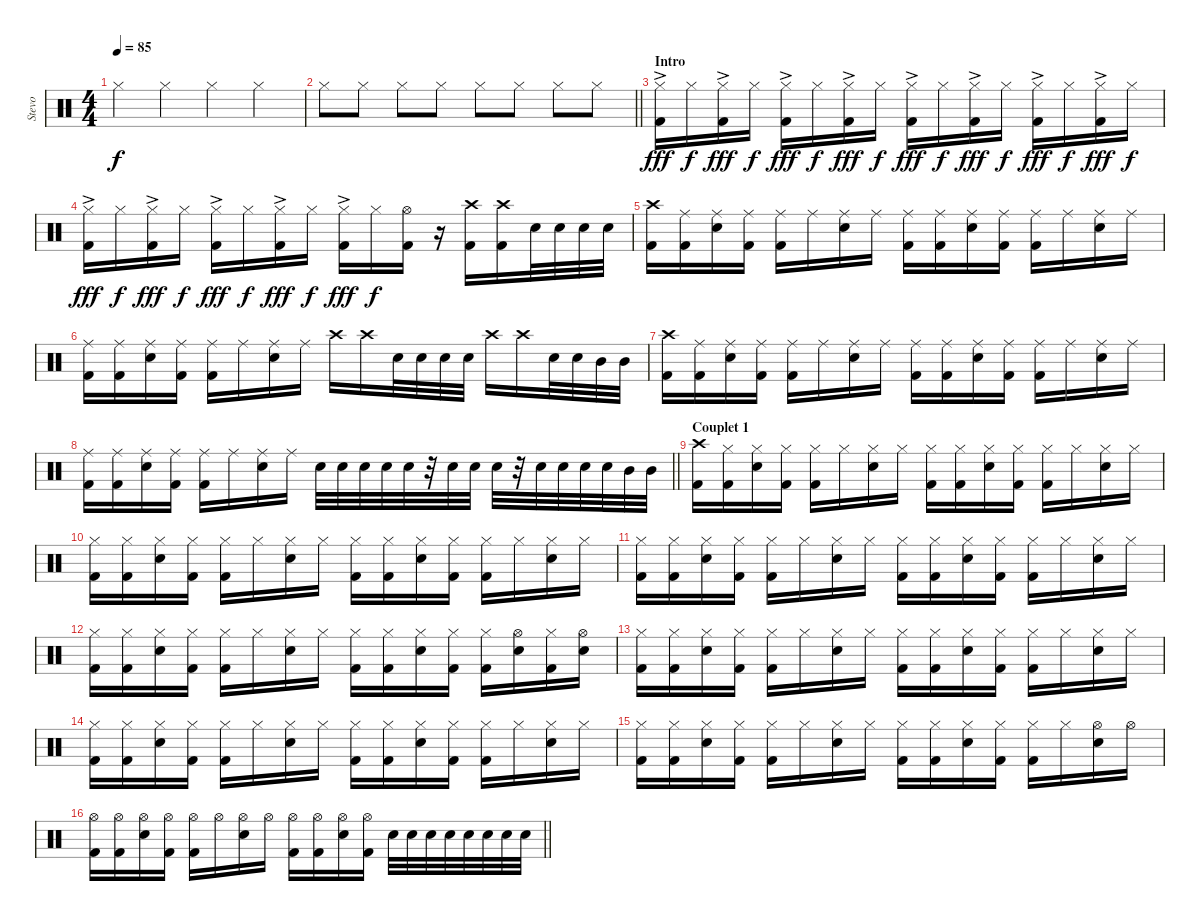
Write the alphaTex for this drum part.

\track ("Stevo" "Stevo") {instrument percussion}
\staff {score}
\articulation defaults
\ts (4 4)
\tempo 85
\clef neutral
\ks c "Hi-Hat (closed)".4{dy f} "Hi-Hat (closed)".4 "Hi-Hat (closed)".4 "Hi-Hat (closed)".4
|
\barLineRight lightlight "Hi-Hat (closed)".8 "Hi-Hat (closed)".8 "Hi-Hat (closed)".8 "Hi-Hat (closed)".8 "Hi-Hat (closed)".8 "Hi-Hat (closed)".8 "Hi-Hat (closed)".8 "Hi-Hat (closed)".8
|
\section ("" "Intro")
("Hi-Hat (closed)"{ac} "Kick (hit) 2").16{dy fff} "Hi-Hat (closed)".16{dy f} ("Hi-Hat (closed)"{ac} "Kick (hit) 2").16{dy fff} "Hi-Hat (closed)".16{dy f} ("Hi-Hat (closed)"{ac} "Kick (hit) 2").16{dy fff} "Hi-Hat (closed)".16{dy f} ("Hi-Hat (closed)"{ac} "Kick (hit) 2").16{dy fff} "Hi-Hat (closed)".16{dy f} ("Hi-Hat (closed)"{ac} "Kick (hit) 2").16{dy fff} "Hi-Hat (closed)".16{dy f} ("Hi-Hat (closed)"{ac} "Kick (hit) 2").16{dy fff} "Hi-Hat (closed)".16{dy f} ("Hi-Hat (closed)"{ac} "Kick (hit) 2").16{dy fff} "Hi-Hat (closed)".16{dy f} ("Hi-Hat (closed)"{ac} "Kick (hit) 2").16{dy fff} "Hi-Hat (closed)".16{dy f} |
("Hi-Hat (closed)"{ac} "Kick (hit) 2").16{dy fff} "Hi-Hat (closed)".16{dy f} ("Hi-Hat (closed)"{ac} "Kick (hit) 2").16{dy fff} "Hi-Hat (closed)".16{dy f} ("Hi-Hat (closed)"{ac} "Kick (hit) 2").16{dy fff} "Hi-Hat (closed)".16{dy f} ("Hi-Hat (closed)"{ac} "Kick (hit) 2").16{dy fff} "Hi-Hat (closed)".16{dy f} ("Hi-Hat (closed)"{ac} "Kick (hit) 2").16{dy fff} "Hi-Hat (closed)".16{dy f} ("Hi-Hat (open)" "Kick (hit) 2").16 r.16 ("Crash high (hit)" "Kick (hit) 2").16 ("Crash high (hit)" "Kick (hit) 2").16 "Electric Snare (hit)".32 "Electric Snare (hit)".32 "Electric Snare (hit)".32 "Electric Snare (hit)".32 |
("Crash high (hit)" "Kick (hit) 2").16 ("Ride (middle)" "Kick (hit) 2").16 ("Ride (middle)" "Electric Snare (hit)").16 ("Ride (middle)" "Kick (hit) 2").16 ("Ride (middle)" "Kick (hit) 2").16 "Ride (middle)".16 ("Ride (middle)" "Electric Snare (hit)").16 "Ride (middle)".16 ("Ride (middle)" "Kick (hit) 2").16 ("Ride (middle)" "Kick (hit) 2").16 ("Ride (middle)" "Electric Snare (hit)").16 ("Ride (middle)" "Kick (hit) 2").16 ("Ride (middle)" "Kick (hit) 2").16 "Ride (middle)".16 ("Ride (middle)" "Electric Snare (hit)").16 "Ride (middle)".16 |
("Ride (middle)" "Kick (hit) 2").16 ("Ride (middle)" "Kick (hit) 2").16 ("Ride (middle)" "Electric Snare (hit)").16 ("Ride (middle)" "Kick (hit) 2").16 ("Ride (middle)" "Kick (hit) 2").16 "Ride (middle)".16 ("Ride (middle)" "Electric Snare (hit)").16 "Ride (middle)".16 "Crash high (hit)".16 "Crash high (hit)".16 "Electric Snare (hit)".32 "Electric Snare (hit)".32 "Electric Snare (hit)".32 "Electric Snare (hit)".32 "Crash high (hit)".16 "Crash high (hit)".16 "Electric Snare (hit)".32 "Electric Snare (hit)".32 "Mid Tom (hit)".32 "Mid Tom (hit)".32 |
("Crash high (hit)" "Kick (hit) 2").16 ("Ride (middle)" "Kick (hit) 2").16 ("Ride (middle)" "Electric Snare (hit)").16 ("Ride (middle)" "Kick (hit) 2").16 ("Ride (middle)" "Kick (hit) 2").16 "Ride (middle)".16 ("Ride (middle)" "Electric Snare (hit)").16 "Ride (middle)".16 ("Ride (middle)" "Kick (hit) 2").16 ("Ride (middle)" "Kick (hit) 2").16 ("Ride (middle)" "Electric Snare (hit)").16 ("Ride (middle)" "Kick (hit) 2").16 ("Ride (middle)" "Kick (hit) 2").16 "Ride (middle)".16 ("Ride (middle)" "Electric Snare (hit)").16 "Ride (middle)".16 |
\barLineRight lightlight
("Ride (middle)" "Kick (hit) 2").16 ("Ride (middle)" "Kick (hit) 2").16 ("Ride (middle)" "Electric Snare (hit)").16 ("Ride (middle)" "Kick (hit) 2").16 ("Ride (middle)" "Kick (hit) 2").16 "Ride (middle)".16 ("Ride (middle)" "Electric Snare (hit)").16 "Ride (middle)".16 "Electric Snare (hit)".32 "Electric Snare (hit)".32 "Electric Snare (hit)".32 "Electric Snare (hit)".32 "Electric Snare (hit)".32 r.32 "Electric Snare (hit)".32 "Electric Snare (hit)".32 "Electric Snare (hit)".32 r.32 "Electric Snare (hit)".32 "Electric Snare (hit)".32 "Electric Snare (hit)".32 "Electric Snare (hit)".32 "Mid Tom (hit)".32 "Mid Tom (hit)".32 |
\section ("" "Couplet 1")
("Crash high (hit)" "Kick (hit) 2").16 ("Hi-Hat (closed)" "Kick (hit) 2").16 ("Hi-Hat (closed)" "Electric Snare (hit)").16 ("Hi-Hat (closed)" "Kick (hit) 2").16 ("Hi-Hat (closed)" "Kick (hit) 2").16 "Hi-Hat (closed)".16 ("Hi-Hat (closed)" "Electric Snare (hit)").16 "Hi-Hat (closed)".16 ("Hi-Hat (closed)" "Kick (hit) 2").16 ("Hi-Hat (closed)" "Kick (hit) 2").16 ("Hi-Hat (closed)" "Electric Snare (hit)").16 ("Hi-Hat (closed)" "Kick (hit) 2").16 ("Hi-Hat (closed)" "Kick (hit) 2").16 "Hi-Hat (closed)".16 ("Hi-Hat (closed)" "Electric Snare (hit)").16 "Hi-Hat (closed)".16 |
("Hi-Hat (closed)" "Kick (hit) 2").16 ("Hi-Hat (closed)" "Kick (hit) 2").16 ("Hi-Hat (closed)" "Electric Snare (hit)").16 ("Hi-Hat (closed)" "Kick (hit) 2").16 ("Hi-Hat (closed)" "Kick (hit) 2").16 "Hi-Hat (closed)".16 ("Hi-Hat (closed)" "Electric Snare (hit)").16 "Hi-Hat (closed)".16 ("Hi-Hat (closed)" "Kick (hit) 2").16 ("Hi-Hat (closed)" "Kick (hit) 2").16 ("Hi-Hat (closed)" "Electric Snare (hit)").16 ("Hi-Hat (closed)" "Kick (hit) 2").16 ("Hi-Hat (closed)" "Kick (hit) 2").16 "Hi-Hat (closed)".16 ("Hi-Hat (closed)" "Electric Snare (hit)").16 "Hi-Hat (closed)".16 |
("Hi-Hat (closed)" "Kick (hit) 2").16 ("Hi-Hat (closed)" "Kick (hit) 2").16 ("Hi-Hat (closed)" "Electric Snare (hit)").16 ("Hi-Hat (closed)" "Kick (hit) 2").16 ("Hi-Hat (closed)" "Kick (hit) 2").16 "Hi-Hat (closed)".16 ("Hi-Hat (closed)" "Electric Snare (hit)").16 "Hi-Hat (closed)".16 ("Hi-Hat (closed)" "Kick (hit) 2").16 ("Hi-Hat (closed)" "Kick (hit) 2").16 ("Hi-Hat (closed)" "Electric Snare (hit)").16 ("Hi-Hat (closed)" "Kick (hit) 2").16 ("Hi-Hat (closed)" "Kick (hit) 2").16 "Hi-Hat (closed)".16 ("Hi-Hat (closed)" "Electric Snare (hit)").16 "Hi-Hat (closed)".16 |
("Hi-Hat (closed)" "Kick (hit) 2").16 ("Hi-Hat (closed)" "Kick (hit) 2").16 ("Hi-Hat (closed)" "Electric Snare (hit)").16 ("Hi-Hat (closed)" "Kick (hit) 2").16 ("Hi-Hat (closed)" "Kick (hit) 2").16 "Hi-Hat (closed)".16 ("Hi-Hat (closed)" "Electric Snare (hit)").16 "Hi-Hat (closed)".16 ("Hi-Hat (closed)" "Kick (hit) 2").16 ("Hi-Hat (closed)" "Kick (hit) 2").16 ("Hi-Hat (closed)" "Electric Snare (hit)").16 ("Hi-Hat (closed)" "Kick (hit) 2").16 ("Hi-Hat (closed)" "Kick (hit) 2").16 ("Hi-Hat (open)" "Electric Snare (hit)").16 ("Hi-Hat (closed)" "Kick (hit) 2").16 ("Hi-Hat (open)" "Electric Snare (hit)").16 |
("Hi-Hat (closed)" "Kick (hit) 2").16 ("Hi-Hat (closed)" "Kick (hit) 2").16 ("Hi-Hat (closed)" "Electric Snare (hit)").16 ("Hi-Hat (closed)" "Kick (hit) 2").16 ("Hi-Hat (closed)" "Kick (hit) 2").16 "Hi-Hat (closed)".16 ("Hi-Hat (closed)" "Electric Snare (hit)").16 "Hi-Hat (closed)".16 ("Hi-Hat (closed)" "Kick (hit) 2").16 ("Hi-Hat (closed)" "Kick (hit) 2").16 ("Hi-Hat (closed)" "Electric Snare (hit)").16 ("Hi-Hat (closed)" "Kick (hit) 2").16 ("Hi-Hat (closed)" "Kick (hit) 2").16 "Hi-Hat (closed)".16 ("Hi-Hat (closed)" "Electric Snare (hit)").16 "Hi-Hat (closed)".16 |
("Hi-Hat (closed)" "Kick (hit) 2").16 ("Hi-Hat (closed)" "Kick (hit) 2").16 ("Hi-Hat (closed)" "Electric Snare (hit)").16 ("Hi-Hat (closed)" "Kick (hit) 2").16 ("Hi-Hat (closed)" "Kick (hit) 2").16 "Hi-Hat (closed)".16 ("Hi-Hat (closed)" "Electric Snare (hit)").16 "Hi-Hat (closed)".16 ("Hi-Hat (closed)" "Kick (hit) 2").16 ("Hi-Hat (closed)" "Kick (hit) 2").16 ("Hi-Hat (closed)" "Electric Snare (hit)").16 ("Hi-Hat (closed)" "Kick (hit) 2").16 ("Hi-Hat (closed)" "Kick (hit) 2").16 "Hi-Hat (closed)".16 ("Hi-Hat (closed)" "Electric Snare (hit)").16 "Hi-Hat (closed)".16 |
("Hi-Hat (closed)" "Kick (hit) 2").16 ("Hi-Hat (closed)" "Kick (hit) 2").16 ("Hi-Hat (closed)" "Electric Snare (hit)").16 ("Hi-Hat (closed)" "Kick (hit) 2").16 ("Hi-Hat (closed)" "Kick (hit) 2").16 "Hi-Hat (closed)".16 ("Hi-Hat (closed)" "Electric Snare (hit)").16 "Hi-Hat (closed)".16 ("Hi-Hat (closed)" "Kick (hit) 2").16 ("Hi-Hat (closed)" "Kick (hit) 2").16 ("Hi-Hat (closed)" "Electric Snare (hit)").16 ("Hi-Hat (closed)" "Kick (hit) 2").16 ("Hi-Hat (closed)" "Kick (hit) 2").16 "Hi-Hat (closed)".16 ("Hi-Hat (open)" "Electric Snare (hit)").16 "Hi-Hat (open)".16 |
\barLineRight lightlight
("Hi-Hat (open)" "Kick (hit) 2").16 ("Hi-Hat (open)" "Kick (hit) 2").16 ("Hi-Hat (open)" "Electric Snare (hit)").16 ("Hi-Hat (open)" "Kick (hit) 2").16 ("Hi-Hat (open)" "Kick (hit) 2").16 "Hi-Hat (open)".16 ("Hi-Hat (open)" "Electric Snare (hit)").16 "Hi-Hat (open)".16 ("Hi-Hat (open)" "Kick (hit) 2").16 ("Hi-Hat (open)" "Kick (hit) 2").16 ("Hi-Hat (open)" "Electric Snare (hit)").16 ("Hi-Hat (open)" "Kick (hit) 2").16 "Electric Snare (hit)".32 "Electric Snare (hit)".32 "Electric Snare (hit)".32 "Electric Snare (hit)".32 "Electric Snare (hit)".32 "Electric Snare (hit)".32 "Electric Snare (hit)".32 "Electric Snare (hit)".32
